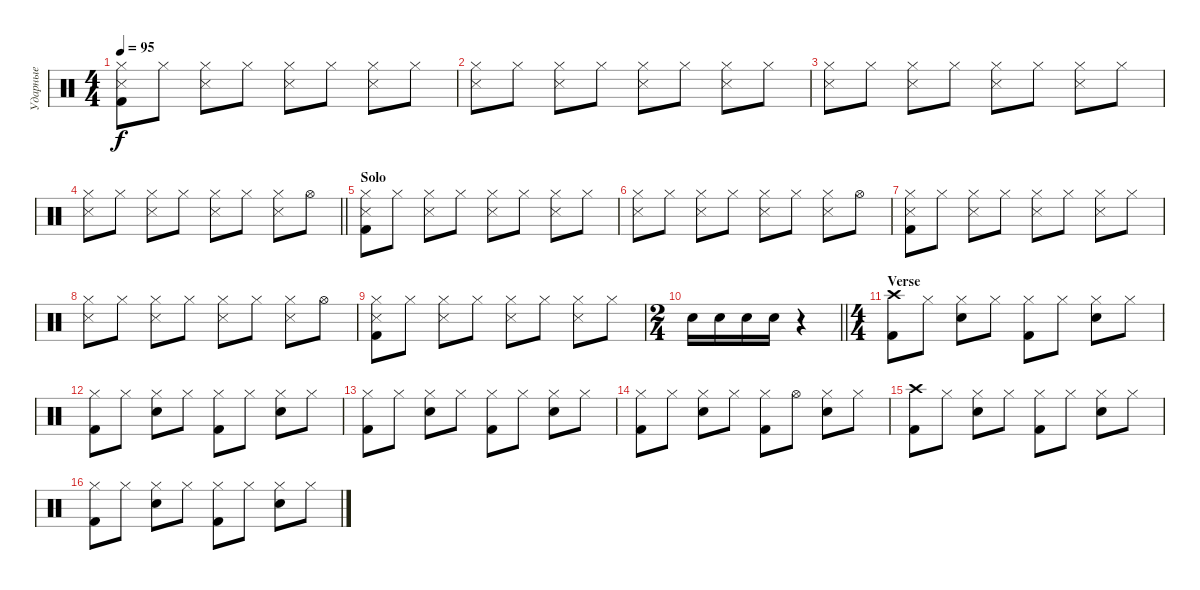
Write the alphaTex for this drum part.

\track ("Ударные" "Ударные") {instrument percussion}
\staff {score}
\articulation defaults
\ts (4 4)
\tempo 95
\clef neutral
\ks c
("Hi-Hat (closed)" "Snare (side stick) 3" "Kick (hit) 2").8{dy f} "Hi-Hat (closed)".8 ("Hi-Hat (closed)" "Snare (side stick) 3").8 "Hi-Hat (closed)".8 ("Hi-Hat (closed)" "Snare (side stick) 3").8 "Hi-Hat (closed)".8 ("Hi-Hat (closed)" "Snare (side stick) 3").8 "Hi-Hat (closed)".8 |
("Hi-Hat (closed)" "Snare (side stick) 3").8 "Hi-Hat (closed)".8 ("Hi-Hat (closed)" "Snare (side stick) 3").8 "Hi-Hat (closed)".8 ("Hi-Hat (closed)" "Snare (side stick) 3").8 "Hi-Hat (closed)".8 ("Hi-Hat (closed)" "Snare (side stick) 3").8 "Hi-Hat (closed)".8 |
("Hi-Hat (closed)" "Snare (side stick) 3").8 "Hi-Hat (closed)".8 ("Hi-Hat (closed)" "Snare (side stick) 3").8 "Hi-Hat (closed)".8 ("Hi-Hat (closed)" "Snare (side stick) 3").8 "Hi-Hat (closed)".8 ("Hi-Hat (closed)" "Snare (side stick) 3").8 "Hi-Hat (closed)".8 |
\barLineRight lightlight
("Hi-Hat (closed)" "Snare (side stick) 3").8 "Hi-Hat (closed)".8 ("Hi-Hat (closed)" "Snare (side stick) 3").8 "Hi-Hat (closed)".8 ("Hi-Hat (closed)" "Snare (side stick) 3").8 "Hi-Hat (closed)".8 ("Hi-Hat (closed)" "Snare (side stick) 3").8 "Hi-Hat (open)".8 |
\section ("" "Solo")
("Hi-Hat (closed)" "Snare (side stick) 3" "Kick (hit) 2").8 "Hi-Hat (closed)".8 ("Hi-Hat (closed)" "Snare (side stick) 3").8 "Hi-Hat (closed)".8 ("Hi-Hat (closed)" "Snare (side stick) 3").8 "Hi-Hat (closed)".8 ("Hi-Hat (closed)" "Snare (side stick) 3").8 "Hi-Hat (closed)".8 |
("Hi-Hat (closed)" "Snare (side stick) 3").8 "Hi-Hat (closed)".8 ("Hi-Hat (closed)" "Snare (side stick) 3").8 "Hi-Hat (closed)".8 ("Hi-Hat (closed)" "Snare (side stick) 3").8 "Hi-Hat (closed)".8 ("Hi-Hat (closed)" "Snare (side stick) 3").8 "Hi-Hat (open)".8 |
("Hi-Hat (closed)" "Snare (side stick) 3" "Kick (hit) 2").8 "Hi-Hat (closed)".8 ("Hi-Hat (closed)" "Snare (side stick) 3").8 "Hi-Hat (closed)".8 ("Hi-Hat (closed)" "Snare (side stick) 3").8 "Hi-Hat (closed)".8 ("Hi-Hat (closed)" "Snare (side stick) 3").8 "Hi-Hat (closed)".8 |
("Hi-Hat (closed)" "Snare (side stick) 3").8 "Hi-Hat (closed)".8 ("Hi-Hat (closed)" "Snare (side stick) 3").8 "Hi-Hat (closed)".8 ("Hi-Hat (closed)" "Snare (side stick) 3").8 "Hi-Hat (closed)".8 ("Hi-Hat (closed)" "Snare (side stick) 3").8 "Hi-Hat (open)".8 |
("Hi-Hat (closed)" "Snare (side stick) 3" "Kick (hit) 2").8 "Hi-Hat (closed)".8 ("Hi-Hat (closed)" "Snare (side stick) 3").8 "Hi-Hat (closed)".8 ("Hi-Hat (closed)" "Snare (side stick) 3").8 "Hi-Hat (closed)".8 ("Hi-Hat (closed)" "Snare (side stick) 3").8 "Hi-Hat (closed)".8 |
\ts (2 4)
\barLineRight lightlight "Electric Snare (hit)".16 "Electric Snare (hit)".16 "Electric Snare (hit)".16 "Electric Snare (hit)".16
r.4 |
\ts (4 4)
\section ("" "Verse")
("Crash high (hit)" "Kick (hit) 2").8 "Hi-Hat (closed)".8 ("Hi-Hat (closed)" "Electric Snare (hit)").8 "Hi-Hat (closed)".8 ("Hi-Hat (closed)" "Kick (hit) 2").8 "Hi-Hat (closed)".8 ("Hi-Hat (closed)" "Electric Snare (hit)").8 "Hi-Hat (closed)".8 |
("Hi-Hat (closed)" "Kick (hit) 2").8 "Hi-Hat (closed)".8 ("Hi-Hat (closed)" "Electric Snare (hit)").8 "Hi-Hat (closed)".8 ("Hi-Hat (closed)" "Kick (hit) 2").8 "Hi-Hat (closed)".8 ("Hi-Hat (closed)" "Electric Snare (hit)").8 "Hi-Hat (closed)".8 |
("Hi-Hat (closed)" "Kick (hit) 2").8 "Hi-Hat (closed)".8 ("Hi-Hat (closed)" "Electric Snare (hit)").8 "Hi-Hat (closed)".8 ("Hi-Hat (closed)" "Kick (hit) 2").8 "Hi-Hat (closed)".8 ("Hi-Hat (closed)" "Electric Snare (hit)").8 "Hi-Hat (closed)".8 |
("Hi-Hat (closed)" "Kick (hit) 2").8 "Hi-Hat (closed)".8 ("Hi-Hat (closed)" "Electric Snare (hit)").8 "Hi-Hat (closed)".8 ("Hi-Hat (closed)" "Kick (hit) 2").8 "Hi-Hat (open)".8 ("Hi-Hat (closed)" "Electric Snare (hit)").8 "Hi-Hat (closed)".8 |
("Crash high (hit)" "Kick (hit) 2").8 "Hi-Hat (closed)".8 ("Hi-Hat (closed)" "Electric Snare (hit)").8 "Hi-Hat (closed)".8 ("Hi-Hat (closed)" "Kick (hit) 2").8 "Hi-Hat (closed)".8 ("Hi-Hat (closed)" "Electric Snare (hit)").8 "Hi-Hat (closed)".8 |
("Hi-Hat (closed)" "Kick (hit) 2").8 "Hi-Hat (closed)".8 ("Hi-Hat (closed)" "Electric Snare (hit)").8 "Hi-Hat (closed)".8 ("Hi-Hat (closed)" "Kick (hit) 2").8 "Hi-Hat (closed)".8 ("Hi-Hat (closed)" "Electric Snare (hit)").8 "Hi-Hat (closed)".8
